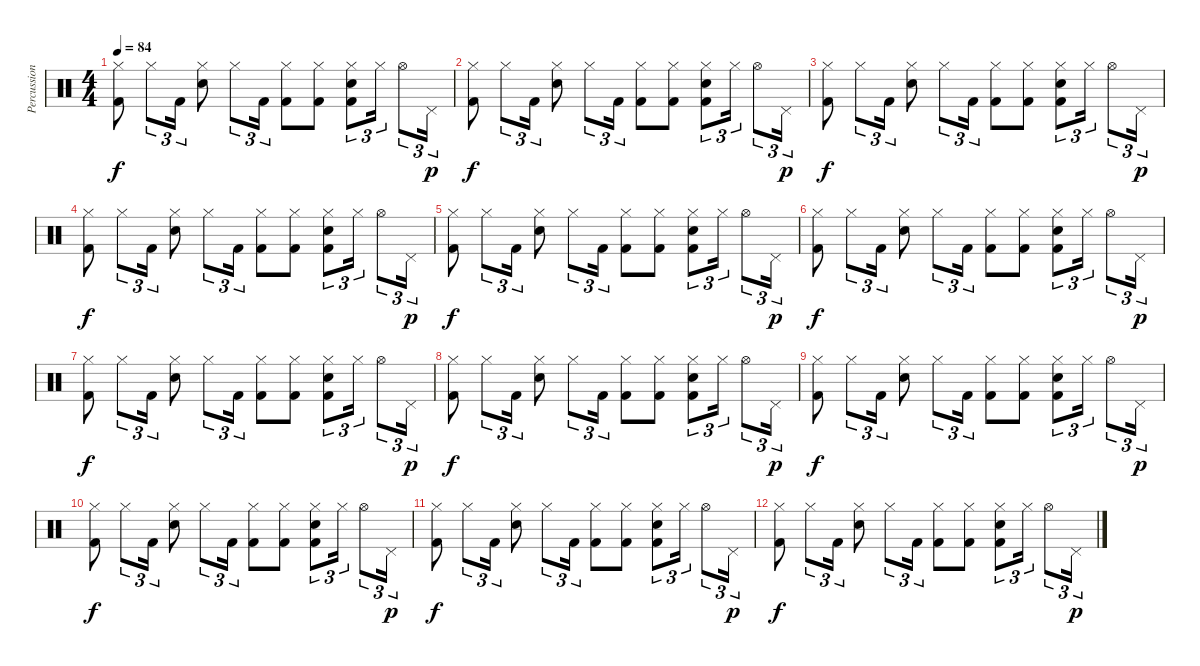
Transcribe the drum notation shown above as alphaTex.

\track ("Percussion" "Percussion") {instrument percussion}
\staff {score}
\articulation defaults
\ts (4 4)
\tempo 84
\clef neutral
\ks c
("Hi-Hat (closed)" "Kick (hit) 2").8{dy f} "Hi-Hat (closed)".8{tu (3 2)} "Kick (hit) 2".16{tu (3 2)} ("Hi-Hat (closed)" "Electric Snare (hit)").8 "Hi-Hat (closed)".8{tu (3 2)} "Kick (hit) 2".16{tu (3 2)} ("Hi-Hat (closed)" "Kick (hit) 2").8 ("Hi-Hat (closed)" "Kick (hit) 2").8 ("Hi-Hat (closed)" "Electric Snare (hit)" "Kick (hit) 2").8{tu (3 2)} "Hi-Hat (closed)".16{tu (3 2)} "Hi-Hat (open)".8{tu (3 2)} "Pedal Hi-Hat (hit)".16{tu (3 2) dy p} |
("Hi-Hat (closed)" "Kick (hit) 2").8{dy f} "Hi-Hat (closed)".8{tu (3 2)} "Kick (hit) 2".16{tu (3 2)} ("Hi-Hat (closed)" "Electric Snare (hit)").8 "Hi-Hat (closed)".8{tu (3 2)} "Kick (hit) 2".16{tu (3 2)} ("Hi-Hat (closed)" "Kick (hit) 2").8 ("Hi-Hat (closed)" "Kick (hit) 2").8 ("Hi-Hat (closed)" "Electric Snare (hit)" "Kick (hit) 2").8{tu (3 2)} "Hi-Hat (closed)".16{tu (3 2)} "Hi-Hat (open)".8{tu (3 2)} "Pedal Hi-Hat (hit)".16{tu (3 2) dy p} |
("Hi-Hat (closed)" "Kick (hit) 2").8{dy f} "Hi-Hat (closed)".8{tu (3 2)} "Kick (hit) 2".16{tu (3 2)} ("Hi-Hat (closed)" "Electric Snare (hit)").8 "Hi-Hat (closed)".8{tu (3 2)} "Kick (hit) 2".16{tu (3 2)} ("Hi-Hat (closed)" "Kick (hit) 2").8 ("Hi-Hat (closed)" "Kick (hit) 2").8 ("Hi-Hat (closed)" "Electric Snare (hit)" "Kick (hit) 2").8{tu (3 2)} "Hi-Hat (closed)".16{tu (3 2)} "Hi-Hat (open)".8{tu (3 2)} "Pedal Hi-Hat (hit)".16{tu (3 2) dy p} |
("Hi-Hat (closed)" "Kick (hit) 2").8{dy f} "Hi-Hat (closed)".8{tu (3 2)} "Kick (hit) 2".16{tu (3 2)} ("Hi-Hat (closed)" "Electric Snare (hit)").8 "Hi-Hat (closed)".8{tu (3 2)} "Kick (hit) 2".16{tu (3 2)} ("Hi-Hat (closed)" "Kick (hit) 2").8 ("Hi-Hat (closed)" "Kick (hit) 2").8 ("Hi-Hat (closed)" "Electric Snare (hit)" "Kick (hit) 2").8{tu (3 2)} "Hi-Hat (closed)".16{tu (3 2)} "Hi-Hat (open)".8{tu (3 2)} "Pedal Hi-Hat (hit)".16{tu (3 2) dy p} |
("Hi-Hat (closed)" "Kick (hit) 2").8{dy f volume 8} "Hi-Hat (closed)".8{tu (3 2)} "Kick (hit) 2".16{tu (3 2)} ("Hi-Hat (closed)" "Electric Snare (hit)").8 "Hi-Hat (closed)".8{tu (3 2)} "Kick (hit) 2".16{tu (3 2)} ("Hi-Hat (closed)" "Kick (hit) 2").8 ("Hi-Hat (closed)" "Kick (hit) 2").8 ("Hi-Hat (closed)" "Electric Snare (hit)" "Kick (hit) 2").8{tu (3 2)} "Hi-Hat (closed)".16{tu (3 2)} "Hi-Hat (open)".8{tu (3 2)} "Pedal Hi-Hat (hit)".16{tu (3 2) dy p} |
("Hi-Hat (closed)" "Kick (hit) 2").8{dy f} "Hi-Hat (closed)".8{tu (3 2)} "Kick (hit) 2".16{tu (3 2)} ("Hi-Hat (closed)" "Electric Snare (hit)").8 "Hi-Hat (closed)".8{tu (3 2)} "Kick (hit) 2".16{tu (3 2)} ("Hi-Hat (closed)" "Kick (hit) 2").8 ("Hi-Hat (closed)" "Kick (hit) 2").8 ("Hi-Hat (closed)" "Electric Snare (hit)" "Kick (hit) 2").8{tu (3 2)} "Hi-Hat (closed)".16{tu (3 2)} "Hi-Hat (open)".8{tu (3 2)} "Pedal Hi-Hat (hit)".16{tu (3 2) dy p} |
("Hi-Hat (closed)" "Kick (hit) 2").8{dy f} "Hi-Hat (closed)".8{tu (3 2)} "Kick (hit) 2".16{tu (3 2)} ("Hi-Hat (closed)" "Electric Snare (hit)").8 "Hi-Hat (closed)".8{tu (3 2)} "Kick (hit) 2".16{tu (3 2)} ("Hi-Hat (closed)" "Kick (hit) 2").8 ("Hi-Hat (closed)" "Kick (hit) 2").8 ("Hi-Hat (closed)" "Electric Snare (hit)" "Kick (hit) 2").8{tu (3 2)} "Hi-Hat (closed)".16{tu (3 2)} "Hi-Hat (open)".8{tu (3 2)} "Pedal Hi-Hat (hit)".16{tu (3 2) dy p} |
("Hi-Hat (closed)" "Kick (hit) 2").8{dy f} "Hi-Hat (closed)".8{tu (3 2)} "Kick (hit) 2".16{tu (3 2)} ("Hi-Hat (closed)" "Electric Snare (hit)").8 "Hi-Hat (closed)".8{tu (3 2)} "Kick (hit) 2".16{tu (3 2)} ("Hi-Hat (closed)" "Kick (hit) 2").8 ("Hi-Hat (closed)" "Kick (hit) 2").8 ("Hi-Hat (closed)" "Electric Snare (hit)" "Kick (hit) 2").8{tu (3 2)} "Hi-Hat (closed)".16{tu (3 2)} "Hi-Hat (open)".8{tu (3 2)} "Pedal Hi-Hat (hit)".16{tu (3 2) dy p} |
("Hi-Hat (closed)" "Kick (hit) 2").8{dy f volume 0} "Hi-Hat (closed)".8{tu (3 2)} "Kick (hit) 2".16{tu (3 2)} ("Hi-Hat (closed)" "Electric Snare (hit)").8 "Hi-Hat (closed)".8{tu (3 2)} "Kick (hit) 2".16{tu (3 2)} ("Hi-Hat (closed)" "Kick (hit) 2").8 ("Hi-Hat (closed)" "Kick (hit) 2").8 ("Hi-Hat (closed)" "Electric Snare (hit)" "Kick (hit) 2").8{tu (3 2)} "Hi-Hat (closed)".16{tu (3 2)} "Hi-Hat (open)".8{tu (3 2)} "Pedal Hi-Hat (hit)".16{tu (3 2) dy p} |
("Hi-Hat (closed)" "Kick (hit) 2").8{dy f} "Hi-Hat (closed)".8{tu (3 2)} "Kick (hit) 2".16{tu (3 2)} ("Hi-Hat (closed)" "Electric Snare (hit)").8 "Hi-Hat (closed)".8{tu (3 2)} "Kick (hit) 2".16{tu (3 2)} ("Hi-Hat (closed)" "Kick (hit) 2").8 ("Hi-Hat (closed)" "Kick (hit) 2").8 ("Hi-Hat (closed)" "Electric Snare (hit)" "Kick (hit) 2").8{tu (3 2)} "Hi-Hat (closed)".16{tu (3 2)} "Hi-Hat (open)".8{tu (3 2)} "Pedal Hi-Hat (hit)".16{tu (3 2) dy p} |
("Hi-Hat (closed)" "Kick (hit) 2").8{dy f} "Hi-Hat (closed)".8{tu (3 2)} "Kick (hit) 2".16{tu (3 2)} ("Hi-Hat (closed)" "Electric Snare (hit)").8 "Hi-Hat (closed)".8{tu (3 2)} "Kick (hit) 2".16{tu (3 2)} ("Hi-Hat (closed)" "Kick (hit) 2").8 ("Hi-Hat (closed)" "Kick (hit) 2").8 ("Hi-Hat (closed)" "Electric Snare (hit)" "Kick (hit) 2").8{tu (3 2)} "Hi-Hat (closed)".16{tu (3 2)} "Hi-Hat (open)".8{tu (3 2)} "Pedal Hi-Hat (hit)".16{tu (3 2) dy p} |
("Hi-Hat (closed)" "Kick (hit) 2").8{dy f} "Hi-Hat (closed)".8{tu (3 2)} "Kick (hit) 2".16{tu (3 2)} ("Hi-Hat (closed)" "Electric Snare (hit)").8 "Hi-Hat (closed)".8{tu (3 2)} "Kick (hit) 2".16{tu (3 2)} ("Hi-Hat (closed)" "Kick (hit) 2").8 ("Hi-Hat (closed)" "Kick (hit) 2").8 ("Hi-Hat (closed)" "Electric Snare (hit)" "Kick (hit) 2").8{tu (3 2)} "Hi-Hat (closed)".16{tu (3 2)} "Hi-Hat (open)".8{tu (3 2)} "Pedal Hi-Hat (hit)".16{tu (3 2) dy p}
